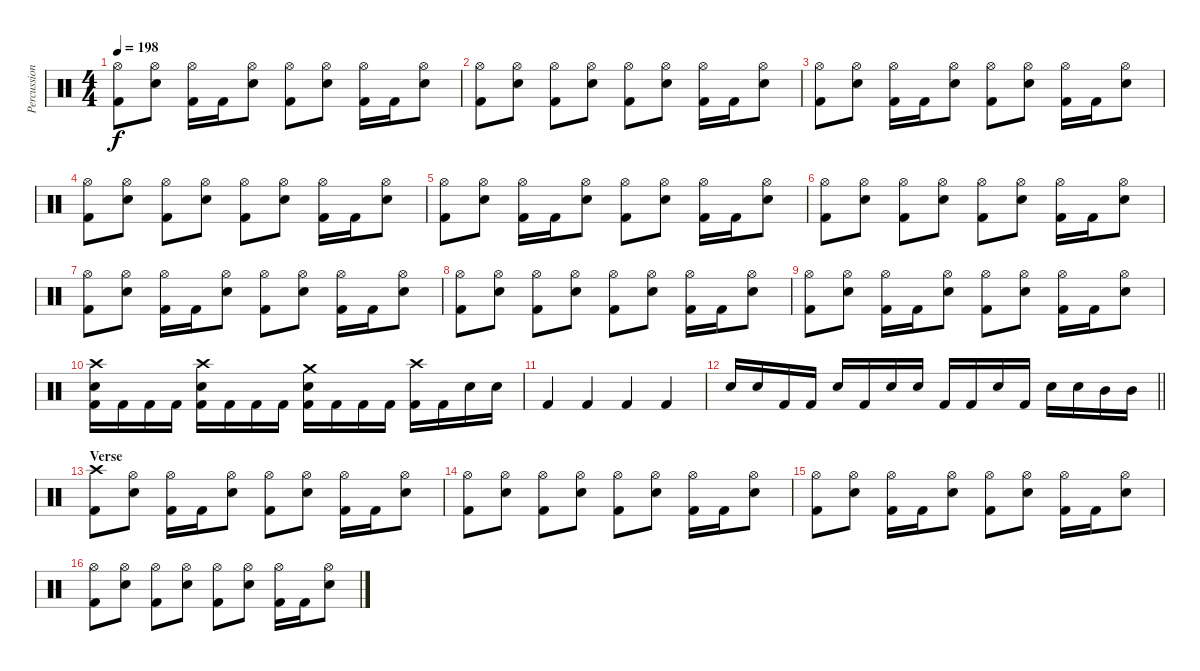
\track ("Percussion" "Percussion") {instrument percussion}
\staff {score}
\articulation defaults
\ts (4 4)
\tempo 198
\clef neutral
\ks c
("Hi-Hat (open)" "Kick (hit) 2").8{dy f} ("Hi-Hat (open)" "Electric Snare (hit)").8 ("Hi-Hat (open)" "Kick (hit) 2").16 "Kick (hit) 2".16 ("Hi-Hat (open)" "Electric Snare (hit)").8 ("Hi-Hat (open)" "Kick (hit) 2").8 ("Hi-Hat (open)" "Electric Snare (hit)").8 ("Hi-Hat (open)" "Kick (hit) 2").16 "Kick (hit) 2".16 ("Hi-Hat (open)" "Electric Snare (hit)").8 |
("Hi-Hat (open)" "Kick (hit) 2").8 ("Hi-Hat (open)" "Electric Snare (hit)").8 ("Hi-Hat (open)" "Kick (hit) 2").8 ("Hi-Hat (open)" "Electric Snare (hit)").8 ("Hi-Hat (open)" "Kick (hit) 2").8 ("Hi-Hat (open)" "Electric Snare (hit)").8 ("Hi-Hat (open)" "Kick (hit) 2").16 "Kick (hit) 2".16 ("Hi-Hat (open)" "Electric Snare (hit)").8 |
("Hi-Hat (open)" "Kick (hit) 2").8 ("Hi-Hat (open)" "Electric Snare (hit)").8 ("Hi-Hat (open)" "Kick (hit) 2").16 "Kick (hit) 2".16 ("Hi-Hat (open)" "Electric Snare (hit)").8 ("Hi-Hat (open)" "Kick (hit) 2").8 ("Hi-Hat (open)" "Electric Snare (hit)").8 ("Hi-Hat (open)" "Kick (hit) 2").16 "Kick (hit) 2".16 ("Hi-Hat (open)" "Electric Snare (hit)").8 |
("Hi-Hat (open)" "Kick (hit) 2").8 ("Hi-Hat (open)" "Electric Snare (hit)").8 ("Hi-Hat (open)" "Kick (hit) 2").8 ("Hi-Hat (open)" "Electric Snare (hit)").8 ("Hi-Hat (open)" "Kick (hit) 2").8 ("Hi-Hat (open)" "Electric Snare (hit)").8 ("Hi-Hat (open)" "Kick (hit) 2").16 "Kick (hit) 2".16 ("Hi-Hat (open)" "Electric Snare (hit)").8 |
("Hi-Hat (open)" "Kick (hit) 2").8 ("Hi-Hat (open)" "Electric Snare (hit)").8 ("Hi-Hat (open)" "Kick (hit) 2").16 "Kick (hit) 2".16 ("Hi-Hat (open)" "Electric Snare (hit)").8 ("Hi-Hat (open)" "Kick (hit) 2").8 ("Hi-Hat (open)" "Electric Snare (hit)").8 ("Hi-Hat (open)" "Kick (hit) 2").16 "Kick (hit) 2".16 ("Hi-Hat (open)" "Electric Snare (hit)").8 |
("Hi-Hat (open)" "Kick (hit) 2").8 ("Hi-Hat (open)" "Electric Snare (hit)").8 ("Hi-Hat (open)" "Kick (hit) 2").8 ("Hi-Hat (open)" "Electric Snare (hit)").8 ("Hi-Hat (open)" "Kick (hit) 2").8 ("Hi-Hat (open)" "Electric Snare (hit)").8 ("Hi-Hat (open)" "Kick (hit) 2").16 "Kick (hit) 2".16 ("Hi-Hat (open)" "Electric Snare (hit)").8 |
("Hi-Hat (open)" "Kick (hit) 2").8 ("Hi-Hat (open)" "Electric Snare (hit)").8 ("Hi-Hat (open)" "Kick (hit) 2").16 "Kick (hit) 2".16 ("Hi-Hat (open)" "Electric Snare (hit)").8 ("Hi-Hat (open)" "Kick (hit) 2").8 ("Hi-Hat (open)" "Electric Snare (hit)").8 ("Hi-Hat (open)" "Kick (hit) 2").16 "Kick (hit) 2".16 ("Hi-Hat (open)" "Electric Snare (hit)").8 |
("Hi-Hat (open)" "Kick (hit) 2").8 ("Hi-Hat (open)" "Electric Snare (hit)").8 ("Hi-Hat (open)" "Kick (hit) 2").8 ("Hi-Hat (open)" "Electric Snare (hit)").8 ("Hi-Hat (open)" "Kick (hit) 2").8 ("Hi-Hat (open)" "Electric Snare (hit)").8 ("Hi-Hat (open)" "Kick (hit) 2").16 "Kick (hit) 2".16 ("Hi-Hat (open)" "Electric Snare (hit)").8 |
("Hi-Hat (open)" "Kick (hit) 2").8 ("Hi-Hat (open)" "Electric Snare (hit)").8 ("Hi-Hat (open)" "Kick (hit) 2").16 "Kick (hit) 2".16 ("Hi-Hat (open)" "Electric Snare (hit)").8 ("Hi-Hat (open)" "Kick (hit) 2").8 ("Hi-Hat (open)" "Electric Snare (hit)").8 ("Hi-Hat (open)" "Kick (hit) 2").16 "Kick (hit) 2".16 ("Hi-Hat (open)" "Electric Snare (hit)").8 |
("Crash high (hit)" "Electric Snare (hit)" "Kick (hit) 2").16 "Kick (hit) 2".16 "Kick (hit) 2".16 "Kick (hit) 2".16 ("Crash high (hit)" "Electric Snare (hit)" "Kick (hit) 2").16 "Kick (hit) 2".16 "Kick (hit) 2".16 "Kick (hit) 2".16 ("Crash medium (hit)" "Electric Snare (hit)" "Kick (hit) 2").16 "Kick (hit) 2".16 "Kick (hit) 2".16 "Kick (hit) 2".16 ("Crash high (hit)" "Kick (hit) 2").16 "Kick (hit) 2".16 "Electric Snare (hit)".16 "Electric Snare (hit)".16 |
"Kick (hit) 2".4 "Kick (hit) 2".4 "Kick (hit) 2".4 "Kick (hit) 2".4 |
\barLineRight lightlight "Electric Snare (hit)".16 "Electric Snare (hit)".16 "Kick (hit) 2".16 "Kick (hit) 2".16 "Electric Snare (hit)".16 "Kick (hit) 2".16 "Electric Snare (hit)".16 "Electric Snare (hit)".16 "Kick (hit) 2".16 "Kick (hit) 2".16 "Electric Snare (hit)".16 "Kick (hit) 2".16 "Electric Snare (hit)".16 "Electric Snare (hit)".16 "Mid Tom (hit)".16 "Mid Tom (hit)".16
|
\section ("" "Verse")
("Crash high (hit)" "Kick (hit) 2").8 ("Hi-Hat (open)" "Electric Snare (hit)").8 ("Hi-Hat (open)" "Kick (hit) 2").16 "Kick (hit) 2".16 ("Hi-Hat (open)" "Electric Snare (hit)").8 ("Hi-Hat (open)" "Kick (hit) 2").8 ("Hi-Hat (open)" "Electric Snare (hit)").8 ("Hi-Hat (open)" "Kick (hit) 2").16 "Kick (hit) 2".16 ("Hi-Hat (open)" "Electric Snare (hit)").8 |
("Hi-Hat (open)" "Kick (hit) 2").8 ("Hi-Hat (open)" "Electric Snare (hit)").8 ("Hi-Hat (open)" "Kick (hit) 2").8 ("Hi-Hat (open)" "Electric Snare (hit)").8 ("Hi-Hat (open)" "Kick (hit) 2").8 ("Hi-Hat (open)" "Electric Snare (hit)").8 ("Hi-Hat (open)" "Kick (hit) 2").16 "Kick (hit) 2".16 ("Hi-Hat (open)" "Electric Snare (hit)").8 |
("Hi-Hat (open)" "Kick (hit) 2").8 ("Hi-Hat (open)" "Electric Snare (hit)").8 ("Hi-Hat (open)" "Kick (hit) 2").16 "Kick (hit) 2".16 ("Hi-Hat (open)" "Electric Snare (hit)").8 ("Hi-Hat (open)" "Kick (hit) 2").8 ("Hi-Hat (open)" "Electric Snare (hit)").8 ("Hi-Hat (open)" "Kick (hit) 2").16 "Kick (hit) 2".16 ("Hi-Hat (open)" "Electric Snare (hit)").8 |
("Hi-Hat (open)" "Kick (hit) 2").8 ("Hi-Hat (open)" "Electric Snare (hit)").8 ("Hi-Hat (open)" "Kick (hit) 2").8 ("Hi-Hat (open)" "Electric Snare (hit)").8 ("Hi-Hat (open)" "Kick (hit) 2").8 ("Hi-Hat (open)" "Electric Snare (hit)").8 ("Hi-Hat (open)" "Kick (hit) 2").16 "Kick (hit) 2".16 ("Hi-Hat (open)" "Electric Snare (hit)").8
